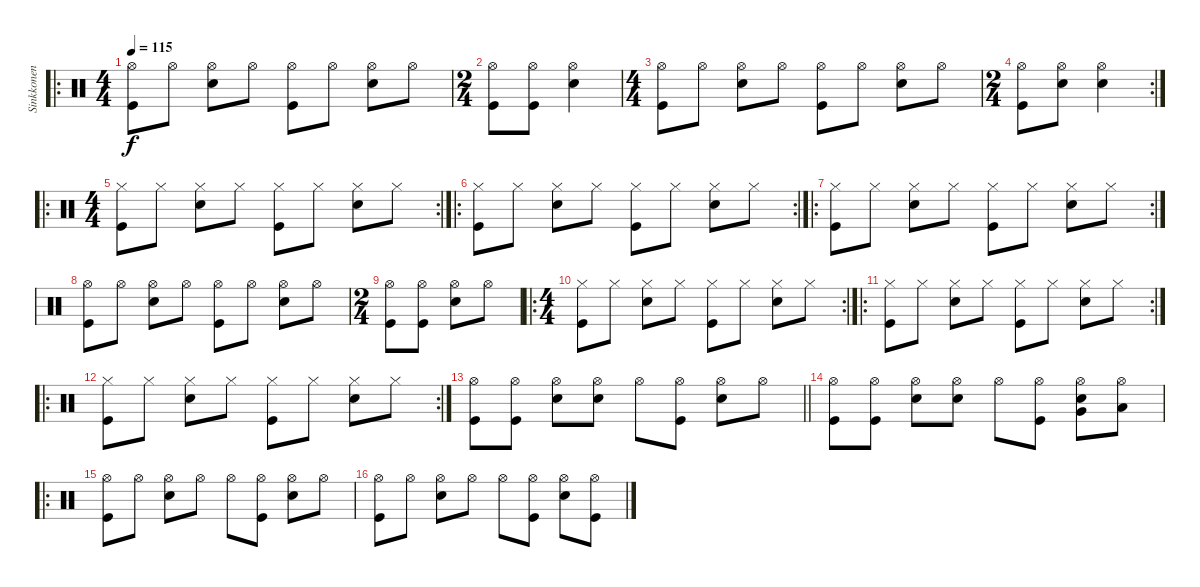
\track ("Sinkkonen" "Sinkkonen") {instrument percussion}
\staff {score}
\articulation defaults
\ro
\ts (4 4)
\tempo 115
\clef neutral
\ks c
("Hi-Hat (open)" "Kick (hit)").8{dy f} "Hi-Hat (open)".8 ("Hi-Hat (open)" "Snare (hit) 2").8 "Hi-Hat (open)".8 ("Hi-Hat (open)" "Kick (hit)").8 "Hi-Hat (open)".8 ("Hi-Hat (open)" "Snare (hit) 2").8 "Hi-Hat (open)".8 |
\ts (2 4)
("Hi-Hat (open)" "Kick (hit)").8 ("Hi-Hat (open)" "Kick (hit)").8 ("Hi-Hat (open)" "Snare (hit) 2").4 |
\ts (4 4)
("Hi-Hat (open)" "Kick (hit)").8 "Hi-Hat (open)".8 ("Hi-Hat (open)" "Snare (hit) 2").8 "Hi-Hat (open)".8 ("Hi-Hat (open)" "Kick (hit)").8 "Hi-Hat (open)".8 ("Hi-Hat (open)" "Snare (hit) 2").8 "Hi-Hat (open)".8 |
\rc 2
\ts (2 4)
("Hi-Hat (open)" "Kick (hit)").8 ("Hi-Hat (open)" "Snare (hit) 2").8 ("Hi-Hat (open)" "Snare (hit) 2").4 |
\ro
\rc 2
\ts (4 4)
("Hi-Hat (closed)" "Kick (hit)").8 "Hi-Hat (closed)".8 ("Hi-Hat (closed)" "Snare (hit) 2").8 "Hi-Hat (closed)".8 ("Hi-Hat (closed)" "Kick (hit)").8 "Hi-Hat (closed)".8 ("Hi-Hat (closed)" "Snare (hit) 2").8 "Hi-Hat (closed)".8 |
\ro
\rc 2
("Hi-Hat (closed)" "Kick (hit)").8 "Hi-Hat (closed)".8 ("Hi-Hat (closed)" "Snare (hit) 2").8 "Hi-Hat (closed)".8 ("Hi-Hat (closed)" "Kick (hit)").8 "Hi-Hat (closed)".8 ("Hi-Hat (closed)" "Snare (hit) 2").8 "Hi-Hat (closed)".8 |
\ro
\rc 2
("Hi-Hat (closed)" "Kick (hit)").8 "Hi-Hat (closed)".8 ("Hi-Hat (closed)" "Snare (hit) 2").8 "Hi-Hat (closed)".8 ("Hi-Hat (closed)" "Kick (hit)").8 "Hi-Hat (closed)".8 ("Hi-Hat (closed)" "Snare (hit) 2").8 "Hi-Hat (closed)".8 |
("Hi-Hat (open)" "Kick (hit)").8 "Hi-Hat (open)".8 ("Hi-Hat (open)" "Snare (hit) 2").8 "Hi-Hat (open)".8 ("Hi-Hat (open)" "Kick (hit)").8 "Hi-Hat (open)".8 ("Hi-Hat (open)" "Snare (hit) 2").8 "Hi-Hat (open)".8 |
\ts (2 4)
("Hi-Hat (open)" "Kick (hit)").8 ("Hi-Hat (open)" "Kick (hit)").8 ("Hi-Hat (open)" "Snare (hit) 2").8 "Hi-Hat (open)".8 |
\ro
\rc 2
\ts (4 4)
("Hi-Hat (closed)" "Kick (hit)").8 "Hi-Hat (closed)".8 ("Hi-Hat (closed)" "Snare (hit) 2").8 "Hi-Hat (closed)".8 ("Hi-Hat (closed)" "Kick (hit)").8 "Hi-Hat (closed)".8 ("Hi-Hat (closed)" "Snare (hit) 2").8 "Hi-Hat (closed)".8 |
\ro
\rc 2
("Hi-Hat (closed)" "Kick (hit)").8 "Hi-Hat (closed)".8 ("Hi-Hat (closed)" "Snare (hit) 2").8 "Hi-Hat (closed)".8 ("Hi-Hat (closed)" "Kick (hit)").8 "Hi-Hat (closed)".8 ("Hi-Hat (closed)" "Snare (hit) 2").8 "Hi-Hat (closed)".8 |
\ro
\rc 2
("Hi-Hat (closed)" "Kick (hit)").8 "Hi-Hat (closed)".8 ("Hi-Hat (closed)" "Snare (hit) 2").8 "Hi-Hat (closed)".8 ("Hi-Hat (closed)" "Kick (hit)").8 "Hi-Hat (closed)".8 ("Hi-Hat (closed)" "Snare (hit) 2").8 "Hi-Hat (closed)".8 |
\barLineRight lightlight
("Hi-Hat (open)" "Kick (hit)").8 ("Hi-Hat (open)" "Kick (hit)").8 ("Hi-Hat (open)" "Snare (hit) 2").8 ("Hi-Hat (open)" "Snare (hit) 2").8 "Hi-Hat (open)".8 ("Hi-Hat (open)" "Kick (hit)").8 ("Hi-Hat (open)" "Snare (hit) 2").8 "Hi-Hat (open)".8 |
("Hi-Hat (open)" "Kick (hit)").8 ("Hi-Hat (open)" "Kick (hit)").8 ("Hi-Hat (open)" "Snare (hit) 2").8 ("Hi-Hat (open)" "Snare (hit) 2").8 "Hi-Hat (open)".8 ("Hi-Hat (open)" "Kick (hit)").8 ("Hi-Hat (open)" "Very Low Tom (hit)" "Snare (hit) 2").8 ("Hi-Hat (open)" "Low Floor Tom (hit)").8 |
\ro
("Hi-Hat (open)" "Kick (hit)").8 "Hi-Hat (open)".8 ("Hi-Hat (open)" "Snare (hit) 2").8 "Hi-Hat (open)".8 "Hi-Hat (open)".8 ("Hi-Hat (open)" "Kick (hit)").8 ("Hi-Hat (open)" "Snare (hit) 2").8 "Hi-Hat (open)".8 |
("Hi-Hat (open)" "Kick (hit)").8 "Hi-Hat (open)".8 ("Hi-Hat (open)" "Snare (hit) 2").8 "Hi-Hat (open)".8 "Hi-Hat (open)".8 ("Hi-Hat (open)" "Kick (hit)").8 ("Hi-Hat (open)" "Snare (hit) 2").8 ("Hi-Hat (open)" "Kick (hit)").8
